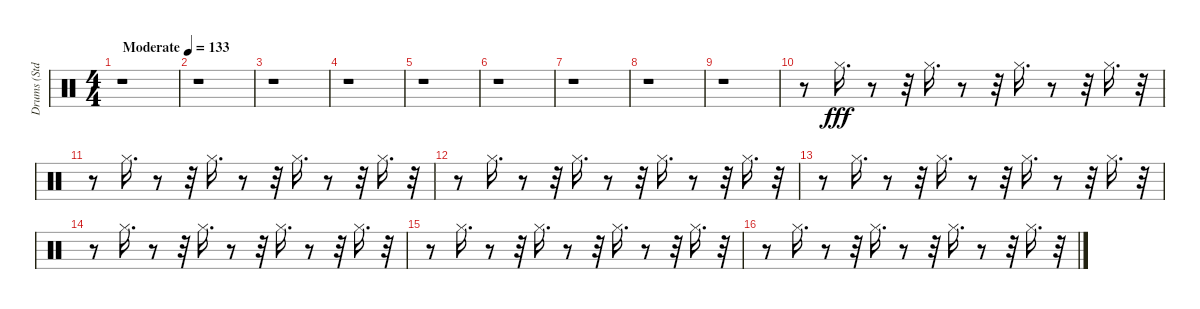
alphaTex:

\track ("Drums (Std.)" "Drums (Std") {instrument percussion}
\staff {score}
\articulation defaults
\ts (4 4)
\tempo (133 "Moderate")
\clef neutral
\ks c
r.1{dy fff} |
r.1 |
r.1 |
r.1 |
r.1 |
r.1 |
r.1 |
r.1 |
r.1 |
r.8 "Hi-Hat (closed)".16{d} r.8 r.32 "Hi-Hat (closed)".16{d} r.8 r.32 "Hi-Hat (closed)".16{d} r.8 r.32 "Hi-Hat (closed)".16{d} r.32 |
r.8 "Hi-Hat (closed)".16{d} r.8 r.32 "Hi-Hat (closed)".16{d} r.8 r.32 "Hi-Hat (closed)".16{d} r.8 r.32 "Hi-Hat (closed)".16{d} r.32 |
r.8 "Hi-Hat (closed)".16{d} r.8 r.32 "Hi-Hat (closed)".16{d} r.8 r.32 "Hi-Hat (closed)".16{d} r.8 r.32 "Hi-Hat (closed)".16{d} r.32 |
r.8 "Hi-Hat (closed)".16{d} r.8 r.32 "Hi-Hat (closed)".16{d} r.8 r.32 "Hi-Hat (closed)".16{d} r.8 r.32 "Hi-Hat (closed)".16{d} r.32 |
r.8 "Hi-Hat (closed)".16{d} r.8 r.32 "Hi-Hat (closed)".16{d} r.8 r.32 "Hi-Hat (closed)".16{d} r.8 r.32 "Hi-Hat (closed)".16{d} r.32 |
r.8 "Hi-Hat (closed)".16{d} r.8 r.32 "Hi-Hat (closed)".16{d} r.8 r.32 "Hi-Hat (closed)".16{d} r.8 r.32 "Hi-Hat (closed)".16{d} r.32 |
r.8 "Hi-Hat (closed)".16{d} r.8 r.32 "Hi-Hat (closed)".16{d} r.8 r.32 "Hi-Hat (closed)".16{d} r.8 r.32 "Hi-Hat (closed)".16{d} r.32
